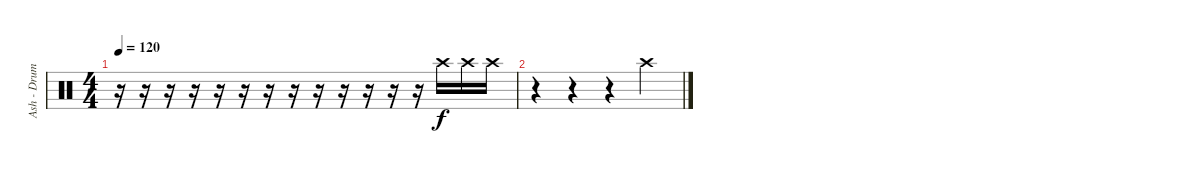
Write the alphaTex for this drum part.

\track ("Ash - Drums" "Ash - Drum") {instrument percussion}
\staff {score}
\articulation defaults
\ts (4 4)
\tempo 120
\clef neutral
\ks c
r.16{dy f} r.16 r.16 r.16 r.16 r.16 r.16 r.16 r.16 r.16 r.16 r.16 r.16 "Crash high (hit)".16 "Crash high (hit)".16 "Crash high (hit)".16 |
r.4 r.4 r.4 "Crash high (hit)".4
